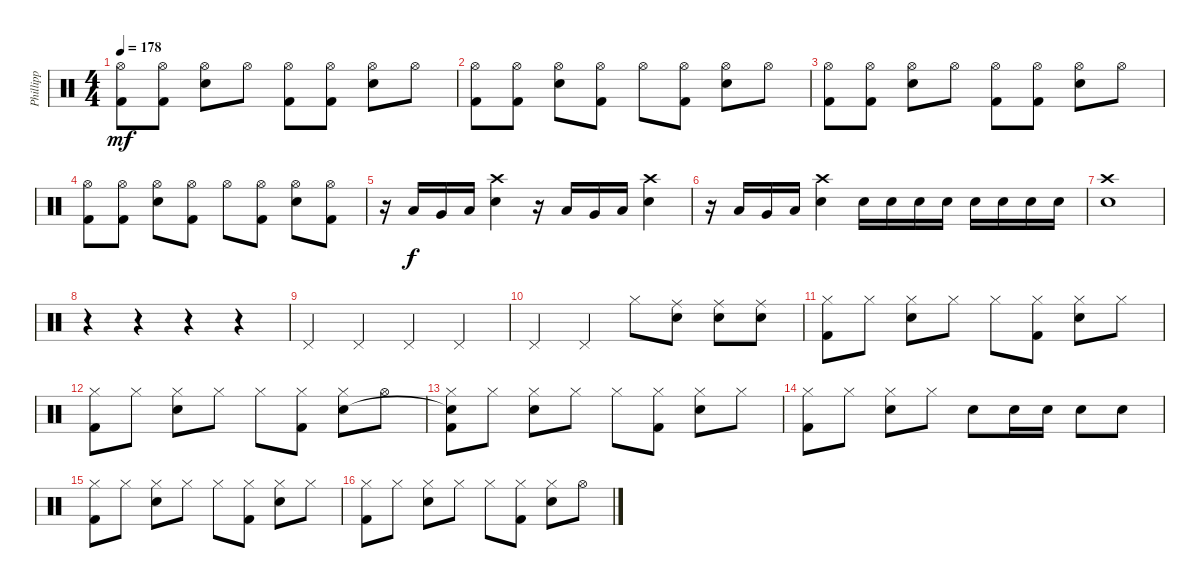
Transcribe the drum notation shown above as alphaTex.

\track ("Phillipp" "Phillipp") {instrument percussion}
\staff {score}
\articulation defaults
\ts (4 4)
\tempo 178
\clef neutral
\ks c
("Hi-Hat (open)" "Kick (hit) 2").8{dy mf} ("Hi-Hat (open)" "Kick (hit) 2").8 ("Hi-Hat (open)" "Electric Snare (hit)").8 "Hi-Hat (open)".8 ("Hi-Hat (open)" "Kick (hit) 2").8 ("Hi-Hat (open)" "Kick (hit) 2").8 ("Hi-Hat (open)" "Electric Snare (hit)").8 "Hi-Hat (open)".8 |
("Hi-Hat (open)" "Kick (hit) 2").8 ("Hi-Hat (open)" "Kick (hit) 2").8 ("Hi-Hat (open)" "Electric Snare (hit)").8 ("Hi-Hat (open)" "Kick (hit) 2").8 "Hi-Hat (open)".8 ("Hi-Hat (open)" "Kick (hit) 2").8 ("Hi-Hat (open)" "Electric Snare (hit)").8 "Hi-Hat (open)".8 |
("Hi-Hat (open)" "Kick (hit) 2").8 ("Hi-Hat (open)" "Kick (hit) 2").8 ("Hi-Hat (open)" "Electric Snare (hit)").8 "Hi-Hat (open)".8 ("Hi-Hat (open)" "Kick (hit) 2").8 ("Hi-Hat (open)" "Kick (hit) 2").8 ("Hi-Hat (open)" "Electric Snare (hit)").8 "Hi-Hat (open)".8 |
("Hi-Hat (open)" "Kick (hit) 2").8 ("Hi-Hat (open)" "Kick (hit) 2").8 ("Hi-Hat (open)" "Electric Snare (hit)").8 ("Hi-Hat (open)" "Kick (hit) 2").8 "Hi-Hat (open)".8 ("Hi-Hat (open)" "Kick (hit) 2").8 ("Hi-Hat (open)" "Electric Snare (hit)").8 ("Hi-Hat (open)" "Kick (hit) 2").8 |
r.16 "Low Tom (hit)".16{dy f} "Very Low Tom (hit)".16 "Low Tom (hit)".16 ("Electric Snare (hit)" "Crash high (hit)").4 r.16 "Low Tom (hit)".16 "Very Low Tom (hit)".16 "Low Tom (hit)".16 ("Electric Snare (hit)" "Crash high (hit)").4 |
r.16 "Low Tom (hit)".16 "Very Low Tom (hit)".16 "Low Tom (hit)".16 ("Electric Snare (hit)" "Crash high (hit)").4 "Electric Snare (hit)".16 "Electric Snare (hit)".16 "Electric Snare (hit)".16 "Electric Snare (hit)".16 "Electric Snare (hit)".16 "Electric Snare (hit)".16 "Electric Snare (hit)".16 "Electric Snare (hit)".16 |
("Electric Snare (hit)" "Crash high (hit)").1 |
r.4 r.4 r.4 r.4 |
"Pedal Hi-Hat (hit)".4 "Pedal Hi-Hat (hit)".4 "Pedal Hi-Hat (hit)".4 "Pedal Hi-Hat (hit)".4 |
"Pedal Hi-Hat (hit)".4 "Pedal Hi-Hat (hit)".4 "Hi-Hat (closed)".8 ("Ride (middle)" "Electric Snare (hit)").8 ("Ride (middle)" "Electric Snare (hit)").8 ("Ride (middle)" "Electric Snare (hit)").8 |
("Hi-Hat (closed)" "Kick (hit) 2").8 "Hi-Hat (closed)".8 ("Hi-Hat (closed)" "Electric Snare (hit)").8 "Hi-Hat (closed)".8 "Hi-Hat (closed)".8 ("Hi-Hat (closed)" "Kick (hit) 2").8 ("Hi-Hat (closed)" "Electric Snare (hit)").8 "Hi-Hat (closed)".8 |
("Hi-Hat (closed)" "Kick (hit) 2").8 "Hi-Hat (closed)".8 ("Hi-Hat (closed)" "Electric Snare (hit)").8 "Hi-Hat (closed)".8 "Hi-Hat (closed)".8 ("Hi-Hat (closed)" "Kick (hit) 2").8 ("Hi-Hat (closed)" "Electric Snare (hit)").8 "Hi-Hat (open)".8 |
("Hi-Hat (closed)" "Snare (hit)"{t} "Kick (hit) 2").8 "Hi-Hat (closed)".8 ("Hi-Hat (closed)" "Electric Snare (hit)").8 "Hi-Hat (closed)".8 "Hi-Hat (closed)".8 ("Hi-Hat (closed)" "Kick (hit) 2").8 ("Hi-Hat (closed)" "Electric Snare (hit)").8 "Hi-Hat (closed)".8 |
("Hi-Hat (closed)" "Kick (hit) 2").8 "Hi-Hat (closed)".8 ("Hi-Hat (closed)" "Electric Snare (hit)").8 "Hi-Hat (closed)".8 "Electric Snare (hit)".8 "Electric Snare (hit)".16 "Electric Snare (hit)".16 "Electric Snare (hit)".8 "Electric Snare (hit)".8 |
("Hi-Hat (closed)" "Kick (hit) 2").8 "Hi-Hat (closed)".8 ("Hi-Hat (closed)" "Electric Snare (hit)").8 "Hi-Hat (closed)".8 "Hi-Hat (closed)".8 ("Hi-Hat (closed)" "Kick (hit) 2").8 ("Hi-Hat (closed)" "Electric Snare (hit)").8 "Hi-Hat (closed)".8 |
("Hi-Hat (closed)" "Kick (hit) 2").8 "Hi-Hat (closed)".8 ("Hi-Hat (closed)" "Electric Snare (hit)").8 "Hi-Hat (closed)".8 "Hi-Hat (closed)".8 ("Hi-Hat (closed)" "Kick (hit) 2").8 ("Hi-Hat (closed)" "Electric Snare (hit)").8 "Hi-Hat (open)".8
